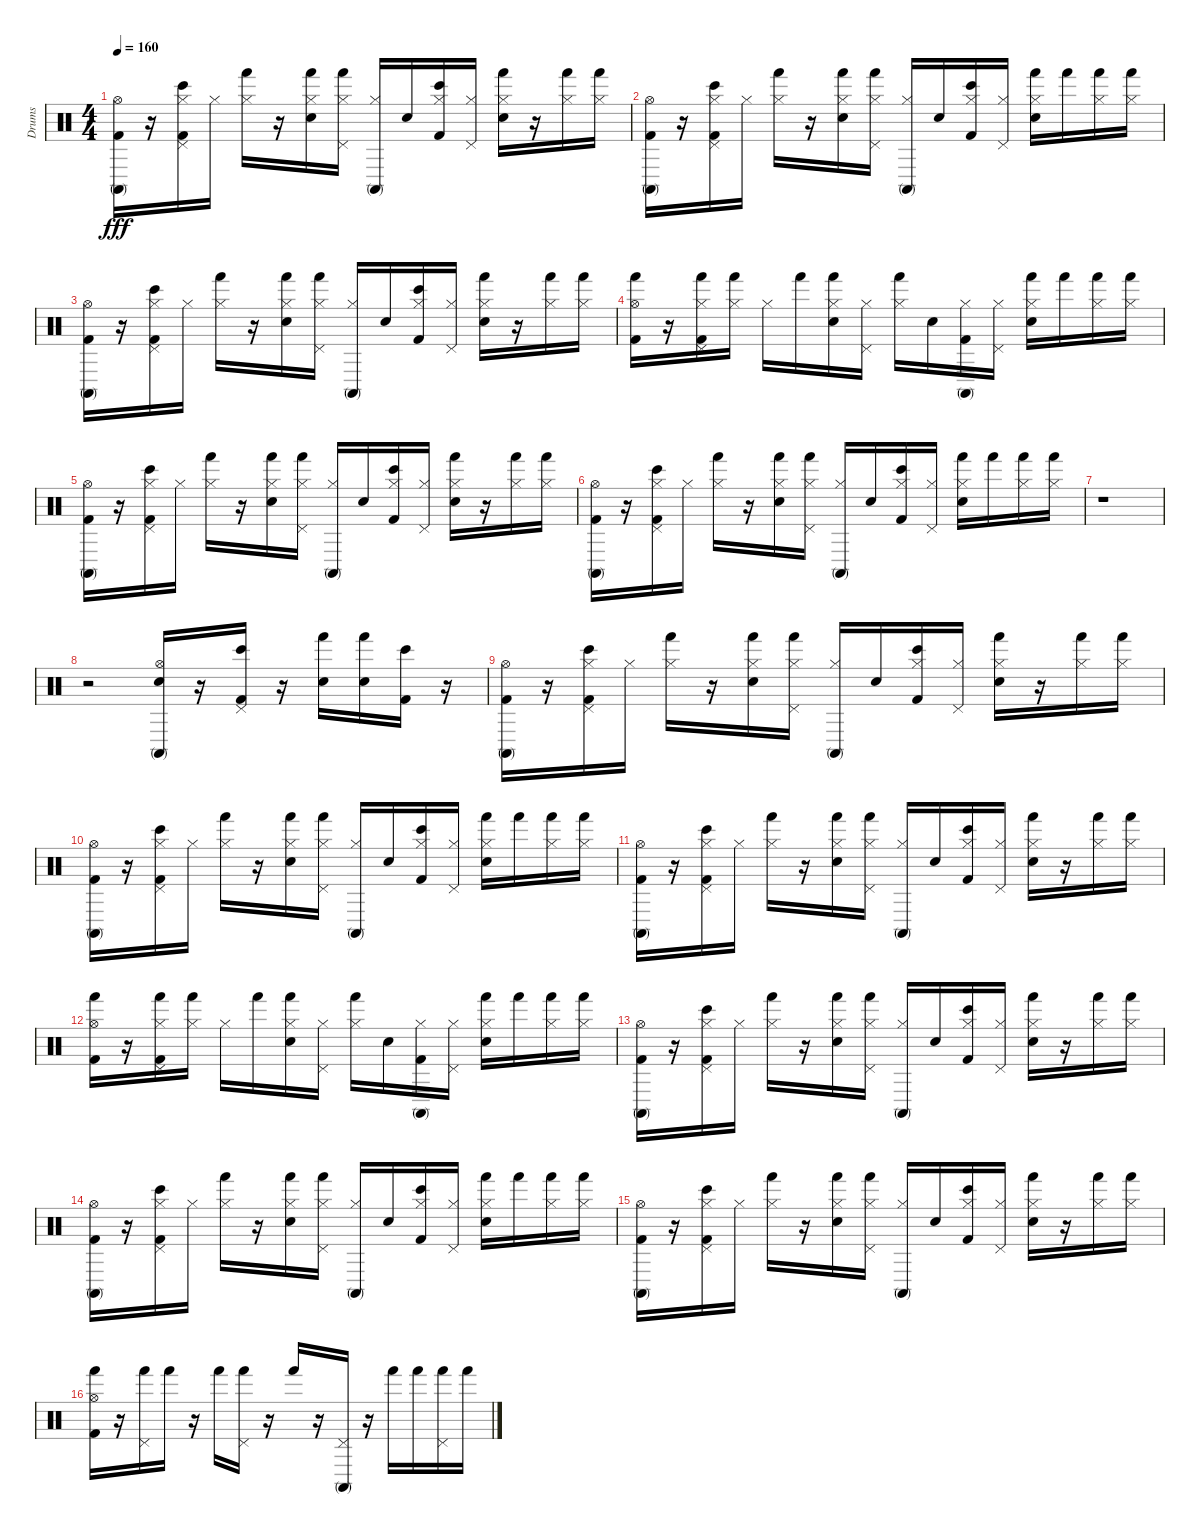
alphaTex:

\track ("Drums" "Drums") {instrument percussion}
\staff {score}
\articulation defaults
\ts (4 4)
\tempo 160
\clef neutral
\ks c
("Kick (hit) 2" "Conga high (mute)" "Hi-Hat (open)").16{dy fff} r.16 ("Hi-Hat (closed)" "Pedal Hi-Hat (hit)" "Bongo High (hit)" "Kick (hit) 2").16 "Hi-Hat (closed)".16 ("Hi-Hat (closed)" "Hand (hit)").16 r.16 ("Hi-Hat (closed)" "Electric Snare (hit)" "Hand (hit)").16 ("Hand (hit)" "Pedal Hi-Hat (hit)" "Hi-Hat (closed)").16 ("Hi-Hat (closed)" "Conga high (mute)").16 "Electric Snare (hit)".16 ("Kick (hit) 2" "Bongo High (hit)" "Hi-Hat (closed)").16 ("Pedal Hi-Hat (hit)" "Hi-Hat (closed)").16 ("Electric Snare (hit)" "Hi-Hat (closed)" "Hand (hit)").16 r.16 ("Hi-Hat (closed)" "Hand (hit)").16 ("Hand (hit)" "Hi-Hat (closed)").16 |
("Hi-Hat (open)" "Conga high (mute)" "Kick (hit) 2").16 r.16 ("Kick (hit) 2" "Bongo High (hit)" "Pedal Hi-Hat (hit)" "Hi-Hat (closed)").16 "Hi-Hat (closed)".16 ("Hi-Hat (closed)" "Hand (hit)").16 r.16 ("Electric Snare (hit)" "Hand (hit)" "Hi-Hat (closed)").16 ("Pedal Hi-Hat (hit)" "Hand (hit)" "Hi-Hat (closed)").16 ("Hi-Hat (closed)" "Conga high (mute)").16 "Electric Snare (hit)".16 ("Kick (hit) 2" "Bongo High (hit)" "Hi-Hat (closed)").16 ("Pedal Hi-Hat (hit)" "Hi-Hat (closed)").16 ("Electric Snare (hit)" "Hand (hit)" "Hi-Hat (closed)").16 "Hand (hit)".16 ("Hand (hit)" "Hi-Hat (closed)").16 ("Hi-Hat (closed)" "Hand (hit)").16 |
("Hi-Hat (open)" "Kick (hit) 2" "Conga high (mute)").16 r.16 ("Hi-Hat (closed)" "Bongo High (hit)" "Pedal Hi-Hat (hit)" "Kick (hit) 2").16 "Hi-Hat (closed)".16 ("Hand (hit)" "Hi-Hat (closed)").16 r.16 ("Hi-Hat (closed)" "Electric Snare (hit)" "Hand (hit)").16 ("Hand (hit)" "Hi-Hat (closed)" "Pedal Hi-Hat (hit)").16 ("Conga high (mute)" "Hi-Hat (closed)").16 "Electric Snare (hit)".16 ("Kick (hit) 2" "Hi-Hat (closed)" "Bongo High (hit)").16 ("Pedal Hi-Hat (hit)" "Hi-Hat (closed)").16 ("Hi-Hat (closed)" "Hand (hit)" "Electric Snare (hit)").16 r.16 ("Hi-Hat (closed)" "Hand (hit)").16 ("Hi-Hat (closed)" "Hand (hit)").16 |
("Hi-Hat (open)" "Kick (hit) 2" "Hand (hit)").16 r.16 ("Hi-Hat (closed)" "Hand (hit)" "Pedal Hi-Hat (hit)" "Kick (hit) 2").16 ("Hand (hit)" "Hi-Hat (closed)").16 "Hi-Hat (closed)".16 "Hand (hit)".16 ("Hand (hit)" "Electric Snare (hit)" "Hi-Hat (closed)").16 ("Pedal Hi-Hat (hit)" "Hi-Hat (closed)").16 ("Hi-Hat (closed)" "Hand (hit)").16 "Electric Snare (hit)".16 ("Kick (hit) 2" "Hi-Hat (closed)" "Conga high (mute)").16 ("Hi-Hat (closed)" "Pedal Hi-Hat (hit)").16 ("Hi-Hat (closed)" "Hand (hit)" "Electric Snare (hit)").16 "Hand (hit)".16 ("Hand (hit)" "Hi-Hat (closed)").16 ("Hi-Hat (closed)" "Hand (hit)").16 |
("Hi-Hat (open)" "Kick (hit) 2" "Conga high (mute)").16 r.16 ("Bongo High (hit)" "Pedal Hi-Hat (hit)" "Kick (hit) 2" "Hi-Hat (closed)").16 "Hi-Hat (closed)".16 ("Hi-Hat (closed)" "Hand (hit)").16 r.16 ("Hand (hit)" "Electric Snare (hit)" "Hi-Hat (closed)").16 ("Pedal Hi-Hat (hit)" "Hi-Hat (closed)" "Hand (hit)").16 ("Hi-Hat (closed)" "Conga high (mute)").16 "Electric Snare (hit)".16 ("Hi-Hat (closed)" "Bongo High (hit)" "Kick (hit) 2").16 ("Hi-Hat (closed)" "Pedal Hi-Hat (hit)").16 ("Hi-Hat (closed)" "Electric Snare (hit)" "Hand (hit)").16 r.16 ("Hi-Hat (closed)" "Hand (hit)").16 ("Hi-Hat (closed)" "Hand (hit)").16 |
("Kick (hit) 2" "Hi-Hat (open)" "Conga high (mute)").16 r.16 ("Kick (hit) 2" "Bongo High (hit)" "Pedal Hi-Hat (hit)" "Hi-Hat (closed)").16 "Hi-Hat (closed)".16 ("Hand (hit)" "Hi-Hat (closed)").16 r.16 ("Hi-Hat (closed)" "Hand (hit)" "Electric Snare (hit)").16 ("Hand (hit)" "Pedal Hi-Hat (hit)" "Hi-Hat (closed)").16 ("Conga high (mute)" "Hi-Hat (closed)").16 "Electric Snare (hit)".16 ("Kick (hit) 2" "Hi-Hat (closed)" "Bongo High (hit)").16 ("Pedal Hi-Hat (hit)" "Hi-Hat (closed)").16 ("Electric Snare (hit)" "Hi-Hat (closed)" "Hand (hit)").16 "Hand (hit)".16 ("Hand (hit)" "Hi-Hat (closed)").16 ("Hand (hit)" "Hi-Hat (closed)").16 |
r.1 |
r.2 ("Electric Snare (hit)" "Conga high (mute)" "Hi-Hat (open)").16 r.16 ("Bongo High (hit)" "Kick (hit) 2" "Pedal Hi-Hat (hit)").16 r.16 ("Hand (hit)" "Electric Snare (hit)").16 ("Hand (hit)" "Electric Snare (hit)").16 ("Kick (hit) 2" "Bongo High (hit)").16 r.16 |
("Hi-Hat (open)" "Conga high (mute)" "Kick (hit) 2").16 r.16 ("Hi-Hat (closed)" "Pedal Hi-Hat (hit)" "Kick (hit) 2" "Bongo High (hit)").16 "Hi-Hat (closed)".16 ("Hi-Hat (closed)" "Hand (hit)").16 r.16 ("Electric Snare (hit)" "Hand (hit)" "Hi-Hat (closed)").16 ("Hi-Hat (closed)" "Hand (hit)" "Pedal Hi-Hat (hit)").16 ("Conga high (mute)" "Hi-Hat (closed)").16 "Electric Snare (hit)".16 ("Hi-Hat (closed)" "Kick (hit) 2" "Bongo High (hit)").16 ("Hi-Hat (closed)" "Pedal Hi-Hat (hit)").16 ("Hand (hit)" "Electric Snare (hit)" "Hi-Hat (closed)").16 r.16 ("Hi-Hat (closed)" "Hand (hit)").16 ("Hi-Hat (closed)" "Hand (hit)").16 |
("Conga high (mute)" "Hi-Hat (open)" "Kick (hit) 2").16 r.16 ("Kick (hit) 2" "Pedal Hi-Hat (hit)" "Bongo High (hit)" "Hi-Hat (closed)").16 "Hi-Hat (closed)".16 ("Hand (hit)" "Hi-Hat (closed)").16 r.16 ("Hi-Hat (closed)" "Electric Snare (hit)" "Hand (hit)").16 ("Hi-Hat (closed)" "Hand (hit)" "Pedal Hi-Hat (hit)").16 ("Hi-Hat (closed)" "Conga high (mute)").16 "Electric Snare (hit)".16 ("Bongo High (hit)" "Hi-Hat (closed)" "Kick (hit) 2").16 ("Pedal Hi-Hat (hit)" "Hi-Hat (closed)").16 ("Hi-Hat (closed)" "Hand (hit)" "Electric Snare (hit)").16 "Hand (hit)".16 ("Hand (hit)" "Hi-Hat (closed)").16 ("Hand (hit)" "Hi-Hat (closed)").16 |
("Hi-Hat (open)" "Kick (hit) 2" "Conga high (mute)").16 r.16 ("Pedal Hi-Hat (hit)" "Hi-Hat (closed)" "Kick (hit) 2" "Bongo High (hit)").16 "Hi-Hat (closed)".16 ("Hi-Hat (closed)" "Hand (hit)").16 r.16 ("Hand (hit)" "Hi-Hat (closed)" "Electric Snare (hit)").16 ("Pedal Hi-Hat (hit)" "Hand (hit)" "Hi-Hat (closed)").16 ("Conga high (mute)" "Hi-Hat (closed)").16 "Electric Snare (hit)".16 ("Hi-Hat (closed)" "Kick (hit) 2" "Bongo High (hit)").16 ("Pedal Hi-Hat (hit)" "Hi-Hat (closed)").16 ("Electric Snare (hit)" "Hi-Hat (closed)" "Hand (hit)").16 r.16 ("Hand (hit)" "Hi-Hat (closed)").16 ("Hand (hit)" "Hi-Hat (closed)").16 |
("Kick (hit) 2" "Hand (hit)" "Hi-Hat (open)").16 r.16 ("Hand (hit)" "Hi-Hat (closed)" "Kick (hit) 2" "Pedal Hi-Hat (hit)").16 ("Hand (hit)" "Hi-Hat (closed)").16 "Hi-Hat (closed)".16 "Hand (hit)".16 ("Electric Snare (hit)" "Hand (hit)" "Hi-Hat (closed)").16 ("Hi-Hat (closed)" "Pedal Hi-Hat (hit)").16 ("Hand (hit)" "Hi-Hat (closed)").16 "Electric Snare (hit)".16 ("Conga high (mute)" "Hi-Hat (closed)" "Kick (hit) 2").16 ("Hi-Hat (closed)" "Pedal Hi-Hat (hit)").16 ("Hand (hit)" "Electric Snare (hit)" "Hi-Hat (closed)").16 "Hand (hit)".16 ("Hand (hit)" "Hi-Hat (closed)").16 ("Hi-Hat (closed)" "Hand (hit)").16 |
("Kick (hit) 2" "Conga high (mute)" "Hi-Hat (open)").16 r.16 ("Hi-Hat (closed)" "Bongo High (hit)" "Pedal Hi-Hat (hit)" "Kick (hit) 2").16 "Hi-Hat (closed)".16 ("Hi-Hat (closed)" "Hand (hit)").16 r.16 ("Electric Snare (hit)" "Hi-Hat (closed)" "Hand (hit)").16 ("Hi-Hat (closed)" "Pedal Hi-Hat (hit)" "Hand (hit)").16 ("Hi-Hat (closed)" "Conga high (mute)").16 "Electric Snare (hit)".16 ("Bongo High (hit)" "Hi-Hat (closed)" "Kick (hit) 2").16 ("Hi-Hat (closed)" "Pedal Hi-Hat (hit)").16 ("Hand (hit)" "Electric Snare (hit)" "Hi-Hat (closed)").16 r.16 ("Hi-Hat (closed)" "Hand (hit)").16 ("Hi-Hat (closed)" "Hand (hit)").16 |
("Kick (hit) 2" "Hi-Hat (open)" "Conga high (mute)").16 r.16 ("Kick (hit) 2" "Hi-Hat (closed)" "Bongo High (hit)" "Pedal Hi-Hat (hit)").16 "Hi-Hat (closed)".16 ("Hand (hit)" "Hi-Hat (closed)").16 r.16 ("Hand (hit)" "Electric Snare (hit)" "Hi-Hat (closed)").16 ("Pedal Hi-Hat (hit)" "Hi-Hat (closed)" "Hand (hit)").16 ("Conga high (mute)" "Hi-Hat (closed)").16 "Electric Snare (hit)".16 ("Hi-Hat (closed)" "Bongo High (hit)" "Kick (hit) 2").16 ("Pedal Hi-Hat (hit)" "Hi-Hat (closed)").16 ("Hi-Hat (closed)" "Hand (hit)" "Electric Snare (hit)").16 "Hand (hit)".16 ("Hand (hit)" "Hi-Hat (closed)").16 ("Hi-Hat (closed)" "Hand (hit)").16 |
("Conga high (mute)" "Kick (hit) 2" "Hi-Hat (open)").16 r.16 ("Pedal Hi-Hat (hit)" "Bongo High (hit)" "Kick (hit) 2" "Hi-Hat (closed)").16 "Hi-Hat (closed)".16 ("Hi-Hat (closed)" "Hand (hit)").16 r.16 ("Hand (hit)" "Hi-Hat (closed)" "Electric Snare (hit)").16 ("Hi-Hat (closed)" "Hand (hit)" "Pedal Hi-Hat (hit)").16 ("Conga high (mute)" "Hi-Hat (closed)").16 "Electric Snare (hit)".16 ("Hi-Hat (closed)" "Kick (hit) 2" "Bongo High (hit)").16 ("Hi-Hat (closed)" "Pedal Hi-Hat (hit)").16 ("Electric Snare (hit)" "Hand (hit)" "Hi-Hat (closed)").16 r.16 ("Hand (hit)" "Hi-Hat (closed)").16 ("Hi-Hat (closed)" "Hand (hit)").16 |
("Hand (hit)" "Hi-Hat (open)" "Kick (hit) 2").16 r.16 ("Pedal Hi-Hat (hit)" "Hand (hit)").16 "Hand (hit)".16 r.16 "Hand (hit)".16 ("Hand (hit)" "Pedal Hi-Hat (hit)").16 r.16 "Hand (hit)".16 r.16 ("Conga high (mute)" "Pedal Hi-Hat (hit)").16 r.16 "Hand (hit)".16 "Hand (hit)".16 ("Pedal Hi-Hat (hit)" "Hand (hit)").16 "Hand (hit)".16
